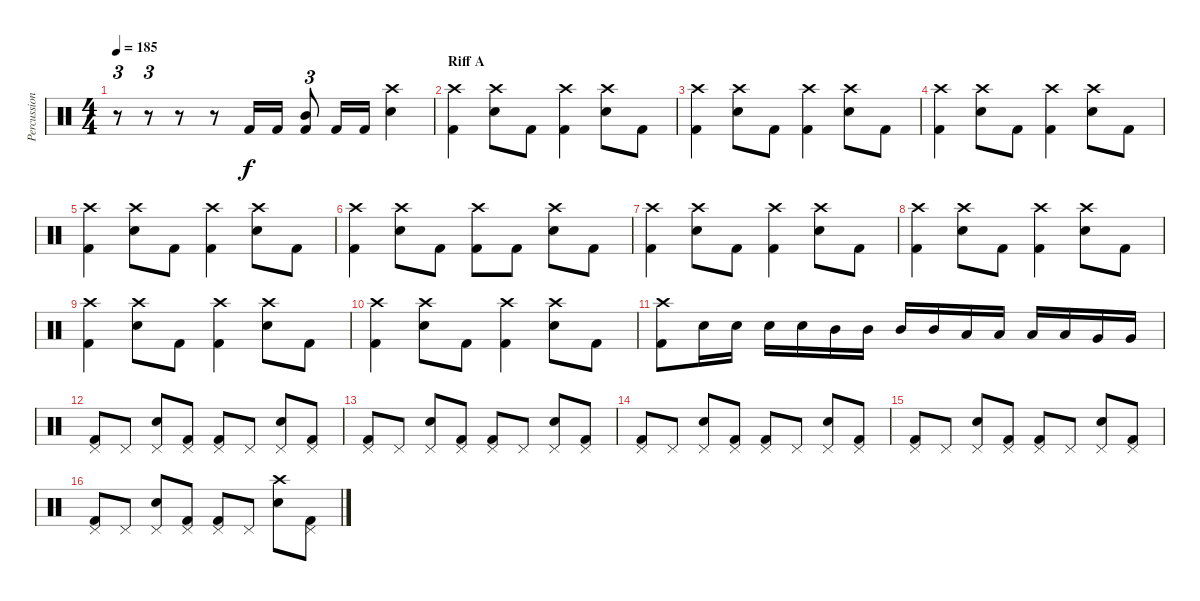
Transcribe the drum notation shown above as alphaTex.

\track ("Percussions" "Percussion") {instrument percussion}
\staff {score}
\articulation defaults
\ts (4 4)
\tempo 185
\clef neutral
\ks c
r.8{tu (3 2) dy f} r.8{tu (3 2)} r.8 r.8 "Kick (hit) 2".16 "Kick (hit) 2".16 ("Mid Tom (hit)" "Kick (hit) 2").8{tu (3 2)} "Kick (hit) 2".16 "Kick (hit) 2".16 ("Crash high (hit)" "Snare (hit) 2").4 |
\section ("" "Riff A")
("Crash high (hit)" "Kick (hit) 2").4 ("Crash high (hit)" "Snare (hit) 2").8 "Kick (hit) 2".8 ("Crash high (hit)" "Kick (hit) 2").4 ("Crash high (hit)" "Snare (hit) 2").8 "Kick (hit) 2".8 |
("Crash high (hit)" "Kick (hit) 2").4 ("Crash high (hit)" "Snare (hit) 2").8 "Kick (hit) 2".8 ("Crash high (hit)" "Kick (hit) 2").4 ("Crash high (hit)" "Snare (hit) 2").8 "Kick (hit) 2".8 |
("Crash high (hit)" "Kick (hit) 2").4 ("Crash high (hit)" "Snare (hit) 2").8 "Kick (hit) 2".8 ("Crash high (hit)" "Kick (hit) 2").4 ("Crash high (hit)" "Snare (hit) 2").8 "Kick (hit) 2".8 |
("Crash high (hit)" "Kick (hit) 2").4 ("Crash high (hit)" "Snare (hit) 2").8 "Kick (hit) 2".8 ("Crash high (hit)" "Kick (hit) 2").4 ("Crash high (hit)" "Snare (hit) 2").8 "Kick (hit) 2".8 |
("Crash high (hit)" "Kick (hit) 2").4 ("Crash high (hit)" "Snare (hit) 2").8 "Kick (hit) 2".8 ("Crash high (hit)" "Kick (hit) 2").8 "Kick (hit) 2".8 ("Crash high (hit)" "Snare (hit) 2").8 "Kick (hit) 2".8 |
("Crash high (hit)" "Kick (hit) 2").4 ("Crash high (hit)" "Snare (hit) 2").8 "Kick (hit) 2".8 ("Crash high (hit)" "Kick (hit) 2").4 ("Crash high (hit)" "Snare (hit) 2").8 "Kick (hit) 2".8 |
("Crash high (hit)" "Kick (hit) 2").4 ("Crash high (hit)" "Snare (hit) 2").8 "Kick (hit) 2".8 ("Crash high (hit)" "Kick (hit) 2").4 ("Crash high (hit)" "Snare (hit) 2").8 "Kick (hit) 2".8 |
("Crash high (hit)" "Kick (hit) 2").4 ("Crash high (hit)" "Snare (hit) 2").8 "Kick (hit) 2".8 ("Crash high (hit)" "Kick (hit) 2").4 ("Crash high (hit)" "Snare (hit) 2").8 "Kick (hit) 2".8 |
("Crash high (hit)" "Kick (hit) 2").4 ("Crash high (hit)" "Snare (hit) 2").8 "Kick (hit) 2".8 ("Crash high (hit)" "Kick (hit) 2").4 ("Crash high (hit)" "Snare (hit) 2").8 "Kick (hit) 2".8 |
("Crash high (hit)" "Kick (hit) 2").8 "Snare (hit) 2".16 "Snare (hit) 2".16 "Snare (hit) 2".16 "Snare (hit) 2".16 "Mid Tom (hit)".16 "Mid Tom (hit)".16 "Mid Tom (hit)".16 "Mid Tom (hit)".16 "Low Tom (hit)".16 "Low Tom (hit)".16 "Low Tom (hit)".16 "Low Tom (hit)".16 "Very Low Tom (hit)".16 "Very Low Tom (hit)".16 |
("Pedal Hi-Hat (hit)" "Kick (hit) 2").8 "Pedal Hi-Hat (hit)".8 ("Pedal Hi-Hat (hit)" "Snare (hit) 2").8 ("Pedal Hi-Hat (hit)" "Kick (hit) 2").8 ("Pedal Hi-Hat (hit)" "Kick (hit) 2").8 "Pedal Hi-Hat (hit)".8 ("Pedal Hi-Hat (hit)" "Snare (hit) 2").8 ("Pedal Hi-Hat (hit)" "Kick (hit) 2").8 |
("Pedal Hi-Hat (hit)" "Kick (hit) 2").8 "Pedal Hi-Hat (hit)".8 ("Pedal Hi-Hat (hit)" "Snare (hit) 2").8 ("Pedal Hi-Hat (hit)" "Kick (hit) 2").8 ("Pedal Hi-Hat (hit)" "Kick (hit) 2").8 "Pedal Hi-Hat (hit)".8 ("Pedal Hi-Hat (hit)" "Snare (hit) 2").8 ("Pedal Hi-Hat (hit)" "Kick (hit) 2").8 |
("Pedal Hi-Hat (hit)" "Kick (hit) 2").8 "Pedal Hi-Hat (hit)".8 ("Pedal Hi-Hat (hit)" "Snare (hit) 2").8 ("Pedal Hi-Hat (hit)" "Kick (hit) 2").8 ("Pedal Hi-Hat (hit)" "Kick (hit) 2").8 "Pedal Hi-Hat (hit)".8 ("Pedal Hi-Hat (hit)" "Snare (hit) 2").8 ("Pedal Hi-Hat (hit)" "Kick (hit) 2").8 |
("Pedal Hi-Hat (hit)" "Kick (hit) 2").8 "Pedal Hi-Hat (hit)".8 ("Pedal Hi-Hat (hit)" "Snare (hit) 2").8 ("Pedal Hi-Hat (hit)" "Kick (hit) 2").8 ("Pedal Hi-Hat (hit)" "Kick (hit) 2").8 "Pedal Hi-Hat (hit)".8 ("Pedal Hi-Hat (hit)" "Snare (hit) 2").8 ("Pedal Hi-Hat (hit)" "Kick (hit) 2").8 |
("Pedal Hi-Hat (hit)" "Kick (hit) 2").8 "Pedal Hi-Hat (hit)".8 ("Pedal Hi-Hat (hit)" "Snare (hit) 2").8 ("Pedal Hi-Hat (hit)" "Kick (hit) 2").8 ("Pedal Hi-Hat (hit)" "Kick (hit) 2").8 "Pedal Hi-Hat (hit)".8 ("Crash high (hit)" "Snare (hit) 2").8 ("Pedal Hi-Hat (hit)" "Kick (hit) 2").8
